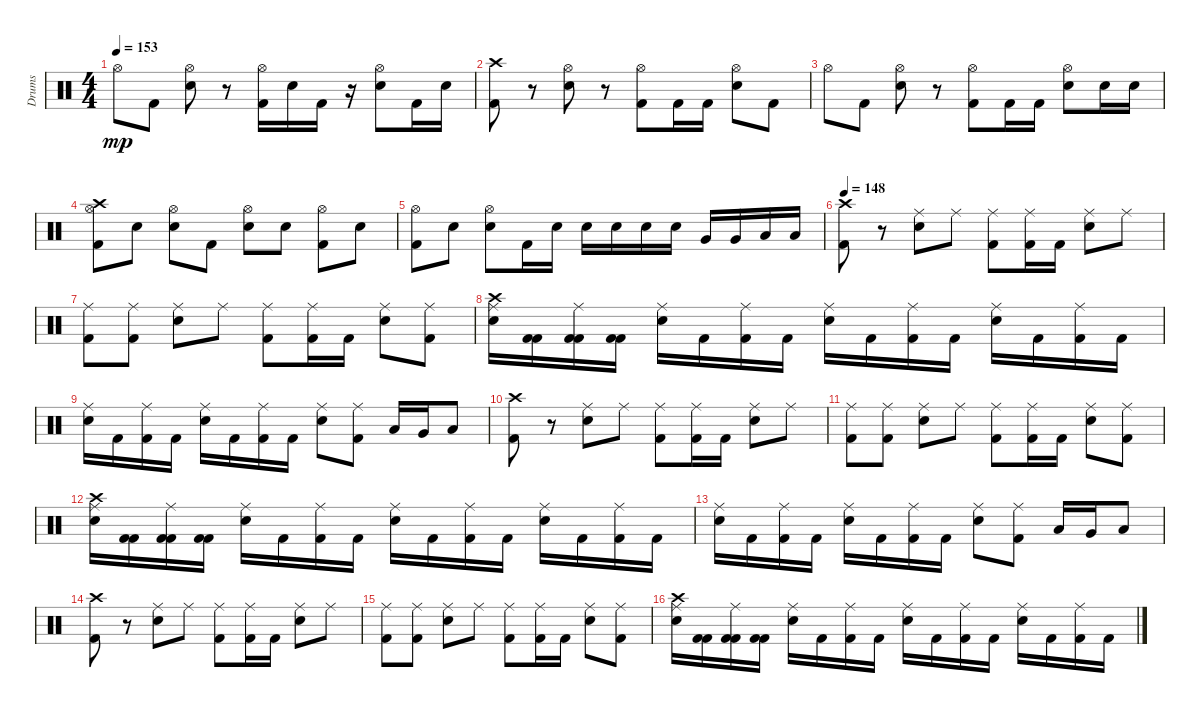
\track ("Drums" "Drums") {instrument percussion}
\staff {score}
\articulation defaults
\ts (4 4)
\tempo 153
\clef neutral
\ks c "Hi-Hat (open)".8{dy mp} "Kick (hit) 2".8
("Snare (hit) 2" "Hi-Hat (open)").8 r.8 ("Hi-Hat (open)" "Kick (hit) 2").16 "Snare (hit) 2".16 "Kick (hit) 2".16 r.16 ("Snare (hit) 2" "Hi-Hat (open)").8 "Kick (hit) 2".16 "Snare (hit) 2".16 |
("Crash high (hit)" "Kick (hit) 2").8 r.8 ("Snare (hit) 2" "Hi-Hat (open)").8 r.8 ("Hi-Hat (open)" "Kick (hit) 2").8 "Kick (hit) 2".16 "Kick (hit) 2".16 ("Snare (hit) 2" "Hi-Hat (open)").8 "Kick (hit) 2".8 |
"Hi-Hat (open)".8 "Kick (hit) 2".8 ("Hi-Hat (open)" "Snare (hit) 2").8 r.8 ("Hi-Hat (open)" "Kick (hit) 2").8 "Kick (hit) 2".16 "Kick (hit) 2".16 ("Snare (hit) 2" "Hi-Hat (open)").8 "Snare (hit) 2".16 "Snare (hit) 2".16 |
("Kick (hit) 2" "Hi-Hat (open)" "Crash high (hit)").8 "Snare (hit) 2".8 ("Snare (hit) 2" "Hi-Hat (open)").8 "Kick (hit) 2".8 ("Hi-Hat (open)" "Snare (hit) 2").8 "Snare (hit) 2".8 ("Hi-Hat (open)" "Kick (hit) 2").8 "Snare (hit) 2".8 |
("Kick (hit) 2" "Hi-Hat (open)").8 "Snare (hit) 2".8 ("Hi-Hat (open)" "Snare (hit) 2").8 "Kick (hit) 2".16 "Snare (hit) 2".16 "Snare (hit) 2".16 "Snare (hit) 2".16 "Snare (hit) 2".16 "Snare (hit) 2".16 "Very Low Tom (hit)".16 "Very Low Tom (hit)".16 "Low Floor Tom (hit)".16 "Low Floor Tom (hit)".16 |
\tempo 148
("Crash high (hit)" "Kick (hit) 2").8 r.8 ("Snare (hit) 2" "Ride (middle)").8 "Ride (middle)".8 ("Kick (hit) 2" "Ride (middle)").8 ("Ride (middle)" "Kick (hit) 2").16 "Kick (hit) 2".16 ("Snare (hit) 2" "Ride (middle)").8 "Ride (middle)".8 |
("Ride (middle)" "Kick (hit) 2").8 ("Ride (middle)" "Kick (hit) 2").8 ("Snare (hit) 2" "Ride (middle)").8 "Ride (middle)".8 ("Ride (middle)" "Kick (hit) 2").8 ("Ride (middle)" "Kick (hit) 2").16 "Kick (hit) 2".16 ("Snare (hit) 2" "Ride (middle)").8 ("Ride (middle)" "Kick (hit) 2").8 |
("Ride (middle)" "Snare (hit) 2" "Crash high (hit)").16 ("Kick (hit) 2" "Kick (hit) 2").16 ("Kick (hit) 2" "Ride (middle)" "Kick (hit) 2").16 ("Kick (hit) 2" "Kick (hit) 2").16 ("Ride (middle)" "Snare (hit) 2").16 "Kick (hit) 2".16 ("Ride (middle)" "Kick (hit) 2").16 "Kick (hit) 2".16 ("Snare (hit) 2" "Ride (middle)").16 "Kick (hit) 2".16 ("Ride (middle)" "Kick (hit) 2").16 "Kick (hit) 2".16 ("Snare (hit) 2" "Ride (middle)").16 "Kick (hit) 2".16 ("Kick (hit) 2" "Ride (middle)").16 "Kick (hit) 2".16 |
("Snare (hit) 2" "Ride (middle)").16 "Kick (hit) 2".16 ("Ride (middle)" "Kick (hit) 2").16 "Kick (hit) 2".16 ("Snare (hit) 2" "Ride (middle)").16 "Kick (hit) 2".16 ("Ride (middle)" "Kick (hit) 2").16 "Kick (hit) 2".16 ("Ride (middle)" "Snare (hit) 2").8 ("Ride (middle)" "Kick (hit) 2").8 "Low Tom (hit)".16 "Very Low Tom (hit)".16 "Low Floor Tom (hit)".8 |
("Kick (hit) 2" "Crash high (hit)").8 r.8 ("Ride (middle)" "Snare (hit) 2").8 "Ride (middle)".8 ("Kick (hit) 2" "Ride (middle)").8 ("Ride (middle)" "Kick (hit) 2").16 "Kick (hit) 2".16 ("Snare (hit) 2" "Ride (middle)").8 "Ride (middle)".8 |
("Ride (middle)" "Kick (hit) 2").8 ("Ride (middle)" "Kick (hit) 2").8 ("Snare (hit) 2" "Ride (middle)").8 "Ride (middle)".8 ("Ride (middle)" "Kick (hit) 2").8 ("Ride (middle)" "Kick (hit) 2").16 "Kick (hit) 2".16 ("Snare (hit) 2" "Ride (middle)").8 ("Kick (hit) 2" "Ride (middle)").8 |
("Ride (middle)" "Crash high (hit)" "Snare (hit) 2").16 ("Kick (hit) 2" "Kick (hit) 2").16 ("Ride (middle)" "Kick (hit) 2" "Kick (hit) 2").16 ("Kick (hit) 2" "Kick (hit) 2").16 ("Snare (hit) 2" "Ride (middle)").16 "Kick (hit) 2".16 ("Ride (middle)" "Kick (hit) 2").16 "Kick (hit) 2".16 ("Ride (middle)" "Snare (hit) 2").16 "Kick (hit) 2".16 ("Ride (middle)" "Kick (hit) 2").16 "Kick (hit) 2".16 ("Ride (middle)" "Snare (hit) 2").16 "Kick (hit) 2".16 ("Ride (middle)" "Kick (hit) 2").16 "Kick (hit) 2".16 |
("Snare (hit) 2" "Ride (middle)").16 "Kick (hit) 2".16 ("Kick (hit) 2" "Ride (middle)").16 "Kick (hit) 2".16 ("Snare (hit) 2" "Ride (middle)").16 "Kick (hit) 2".16 ("Kick (hit) 2" "Ride (middle)").16 "Kick (hit) 2".16 ("Snare (hit) 2" "Ride (middle)").8 ("Kick (hit) 2" "Ride (middle)").8 "Low Tom (hit)".16 "Very Low Tom (hit)".16 "Low Floor Tom (hit)".8 |
("Crash high (hit)" "Kick (hit) 2").8 r.8 ("Ride (middle)" "Snare (hit) 2").8 "Ride (middle)".8 ("Ride (middle)" "Kick (hit) 2").8 ("Kick (hit) 2" "Ride (middle)").16 "Kick (hit) 2".16 ("Snare (hit) 2" "Ride (middle)").8 "Ride (middle)".8 |
("Kick (hit) 2" "Ride (middle)").8 ("Kick (hit) 2" "Ride (middle)").8 ("Snare (hit) 2" "Ride (middle)").8 "Ride (middle)".8 ("Ride (middle)" "Kick (hit) 2").8 ("Ride (middle)" "Kick (hit) 2").16 "Kick (hit) 2".16 ("Snare (hit) 2" "Ride (middle)").8 ("Kick (hit) 2" "Ride (middle)").8 |
("Snare (hit) 2" "Crash high (hit)" "Ride (middle)").16 ("Kick (hit) 2" "Kick (hit) 2").16 ("Kick (hit) 2" "Ride (middle)" "Kick (hit) 2").16 ("Kick (hit) 2" "Kick (hit) 2").16 ("Ride (middle)" "Snare (hit) 2").16 "Kick (hit) 2".16 ("Kick (hit) 2" "Ride (middle)").16 "Kick (hit) 2".16 ("Snare (hit) 2" "Ride (middle)").16 "Kick (hit) 2".16 ("Ride (middle)" "Kick (hit) 2").16 "Kick (hit) 2".16 ("Snare (hit) 2" "Ride (middle)").16 "Kick (hit) 2".16 ("Ride (middle)" "Kick (hit) 2").16 "Kick (hit) 2".16
